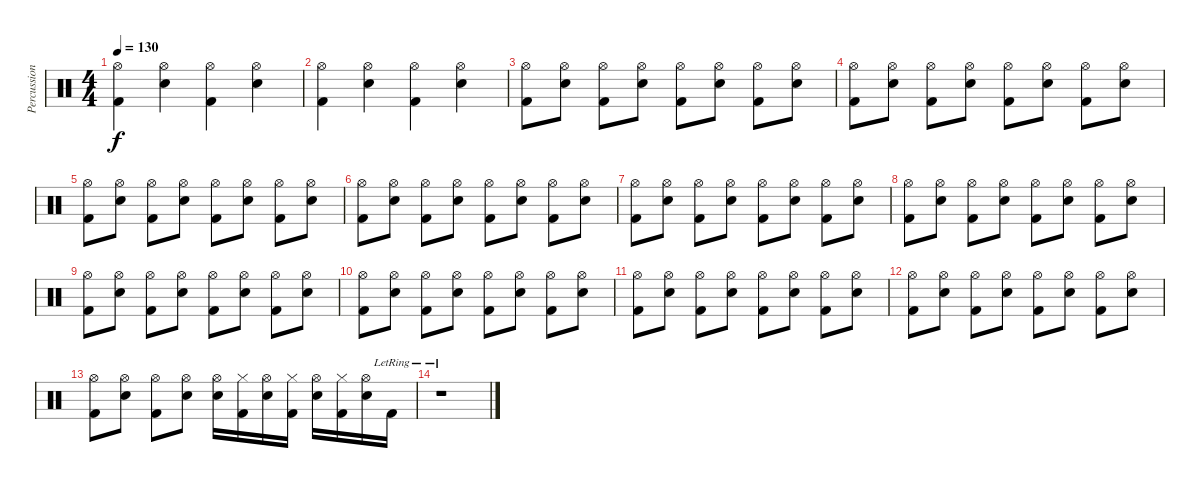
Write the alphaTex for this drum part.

\track ("Percussion" "Percussion") {instrument percussion}
\staff {score}
\articulation defaults
\ts (4 4)
\tempo 130
\clef neutral
\ks c
("Hi-Hat (open)" "Kick (hit) 2").4{dy f} ("Hi-Hat (open)" "Electric Snare (hit)").4 ("Hi-Hat (open)" "Kick (hit) 2").4 ("Hi-Hat (open)" "Electric Snare (hit)").4 |
("Hi-Hat (open)" "Kick (hit) 2").4 ("Hi-Hat (open)" "Electric Snare (hit)").4 ("Hi-Hat (open)" "Kick (hit) 2").4 ("Hi-Hat (open)" "Electric Snare (hit)").4 |
("Hi-Hat (open)" "Kick (hit) 2").8 ("Hi-Hat (open)" "Electric Snare (hit)").8 ("Hi-Hat (open)" "Kick (hit) 2").8 ("Hi-Hat (open)" "Electric Snare (hit)").8 ("Hi-Hat (open)" "Kick (hit) 2").8 ("Hi-Hat (open)" "Electric Snare (hit)").8 ("Hi-Hat (open)" "Kick (hit) 2").8 ("Hi-Hat (open)" "Electric Snare (hit)").8 |
("Hi-Hat (open)" "Kick (hit) 2").8 ("Hi-Hat (open)" "Electric Snare (hit)").8 ("Hi-Hat (open)" "Kick (hit) 2").8 ("Hi-Hat (open)" "Electric Snare (hit)").8 ("Hi-Hat (open)" "Kick (hit) 2").8 ("Hi-Hat (open)" "Electric Snare (hit)").8 ("Hi-Hat (open)" "Kick (hit) 2").8 ("Hi-Hat (open)" "Electric Snare (hit)").8 |
("Hi-Hat (open)" "Kick (hit) 2").8 ("Hi-Hat (open)" "Electric Snare (hit)").8 ("Hi-Hat (open)" "Kick (hit) 2").8 ("Hi-Hat (open)" "Electric Snare (hit)").8 ("Hi-Hat (open)" "Kick (hit) 2").8 ("Hi-Hat (open)" "Electric Snare (hit)").8 ("Hi-Hat (open)" "Kick (hit) 2").8 ("Hi-Hat (open)" "Electric Snare (hit)").8 |
("Hi-Hat (open)" "Kick (hit) 2").8 ("Hi-Hat (open)" "Electric Snare (hit)").8 ("Hi-Hat (open)" "Kick (hit) 2").8 ("Hi-Hat (open)" "Electric Snare (hit)").8 ("Hi-Hat (open)" "Kick (hit) 2").8 ("Hi-Hat (open)" "Electric Snare (hit)").8 ("Hi-Hat (open)" "Kick (hit) 2").8 ("Hi-Hat (open)" "Electric Snare (hit)").8 |
("Hi-Hat (open)" "Kick (hit) 2").8 ("Hi-Hat (open)" "Electric Snare (hit)").8 ("Hi-Hat (open)" "Kick (hit) 2").8 ("Hi-Hat (open)" "Electric Snare (hit)").8 ("Hi-Hat (open)" "Kick (hit) 2").8 ("Hi-Hat (open)" "Electric Snare (hit)").8 ("Hi-Hat (open)" "Kick (hit) 2").8 ("Hi-Hat (open)" "Electric Snare (hit)").8 |
("Hi-Hat (open)" "Kick (hit) 2").8 ("Hi-Hat (open)" "Electric Snare (hit)").8 ("Hi-Hat (open)" "Kick (hit) 2").8 ("Hi-Hat (open)" "Electric Snare (hit)").8 ("Hi-Hat (open)" "Kick (hit) 2").8 ("Hi-Hat (open)" "Electric Snare (hit)").8 ("Hi-Hat (open)" "Kick (hit) 2").8 ("Hi-Hat (open)" "Electric Snare (hit)").8 |
("Hi-Hat (open)" "Kick (hit) 2").8 ("Hi-Hat (open)" "Electric Snare (hit)").8 ("Hi-Hat (open)" "Kick (hit) 2").8 ("Hi-Hat (open)" "Electric Snare (hit)").8 ("Hi-Hat (open)" "Kick (hit) 2").8 ("Hi-Hat (open)" "Electric Snare (hit)").8 ("Hi-Hat (open)" "Kick (hit) 2").8 ("Hi-Hat (open)" "Electric Snare (hit)").8 |
("Hi-Hat (open)" "Kick (hit) 2").8 ("Hi-Hat (open)" "Electric Snare (hit)").8 ("Hi-Hat (open)" "Kick (hit) 2").8 ("Hi-Hat (open)" "Electric Snare (hit)").8 ("Hi-Hat (open)" "Kick (hit) 2").8 ("Hi-Hat (open)" "Electric Snare (hit)").8 ("Hi-Hat (open)" "Kick (hit) 2").8 ("Hi-Hat (open)" "Electric Snare (hit)").8 |
("Hi-Hat (open)" "Kick (hit) 2").8 ("Hi-Hat (open)" "Electric Snare (hit)").8 ("Hi-Hat (open)" "Kick (hit) 2").8 ("Hi-Hat (open)" "Electric Snare (hit)").8 ("Hi-Hat (open)" "Kick (hit) 2").8 ("Hi-Hat (open)" "Electric Snare (hit)").8 ("Hi-Hat (open)" "Kick (hit) 2").8 ("Hi-Hat (open)" "Electric Snare (hit)").8 |
("Hi-Hat (open)" "Kick (hit) 2").8 ("Hi-Hat (open)" "Electric Snare (hit)").8 ("Hi-Hat (open)" "Kick (hit) 2").8 ("Hi-Hat (open)" "Electric Snare (hit)").8 ("Hi-Hat (open)" "Kick (hit) 2").8 ("Hi-Hat (open)" "Electric Snare (hit)").8 ("Hi-Hat (open)" "Kick (hit) 2").8 ("Hi-Hat (open)" "Electric Snare (hit)").8 |
("Hi-Hat (open)" "Kick (hit) 2").8 ("Hi-Hat (open)" "Electric Snare (hit)").8 ("Hi-Hat (open)" "Kick (hit) 2").8 ("Hi-Hat (open)" "Electric Snare (hit)").8 ("Hi-Hat (open)" "Electric Snare (hit)").16 ("Hi-Hat (closed)" "Kick (hit) 2").16 ("Hi-Hat (open)" "Electric Snare (hit)").16 ("Hi-Hat (closed)" "Kick (hit) 2").16 ("Hi-Hat (open)" "Electric Snare (hit)").16 ("Hi-Hat (closed)" "Kick (hit) 2").16 ("Hi-Hat (open)" "Electric Snare (hit)").16 "Kick (hit) 2"{lr}.16 |
r.1
